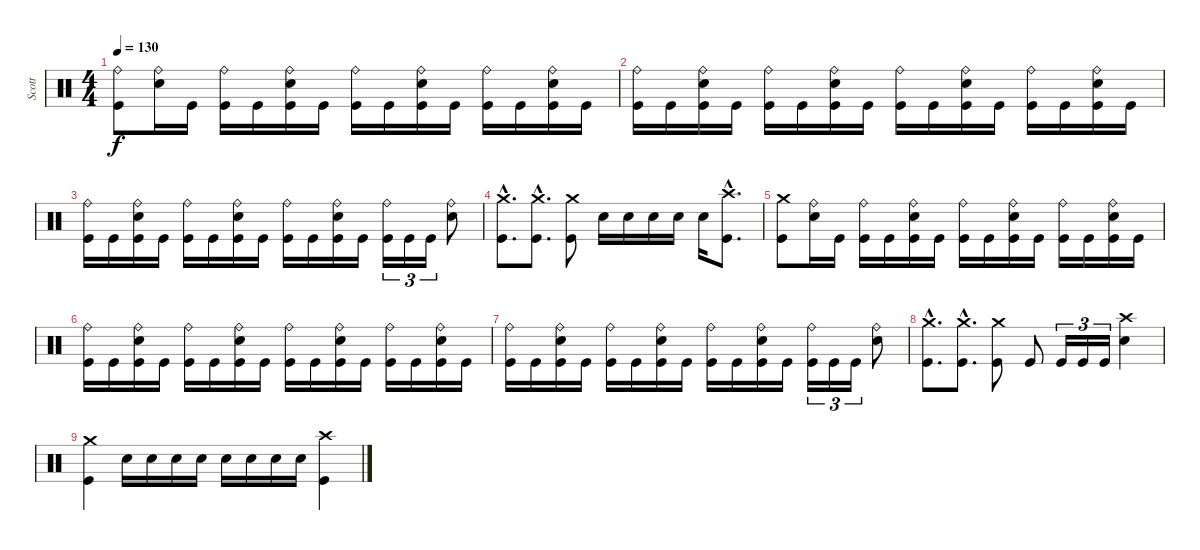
\track ("Scott" "Scott") {instrument percussion}
\staff {score}
\articulation defaults
\ts (4 4)
\tempo 130
\clef neutral
\ks c
("Kick (hit)" "Ride (bell)").8{dy f} ("Snare (hit) 2" "Ride (bell)").16 "Kick (hit)".16 ("Kick (hit)" "Ride (bell)").16 "Kick (hit)".16 ("Kick (hit)" "Snare (hit) 2" "Ride (bell)").16 "Kick (hit)".16 ("Kick (hit)" "Ride (bell)").16 "Kick (hit)".16 ("Kick (hit)" "Snare (hit) 2" "Ride (bell)").16 "Kick (hit)".16 ("Kick (hit)" "Ride (bell)").16 "Kick (hit)".16 ("Kick (hit)" "Snare (hit) 2" "Ride (bell)").16 "Kick (hit)".16 |
("Kick (hit)" "Ride (bell)").16 "Kick (hit)".16 ("Kick (hit)" "Snare (hit) 2" "Ride (bell)").16 "Kick (hit)".16 ("Kick (hit)" "Ride (bell)").16 "Kick (hit)".16 ("Kick (hit)" "Snare (hit) 2" "Ride (bell)").16 "Kick (hit)".16 ("Kick (hit)" "Ride (bell)").16 "Kick (hit)".16 ("Kick (hit)" "Snare (hit) 2" "Ride (bell)").16 "Kick (hit)".16 ("Kick (hit)" "Ride (bell)").16 "Kick (hit)".16 ("Kick (hit)" "Snare (hit) 2" "Ride (bell)").16 "Kick (hit)".16 |
("Kick (hit)" "Ride (bell)").16 "Kick (hit)".16 ("Kick (hit)" "Snare (hit) 2" "Ride (bell)").16 "Kick (hit)".16 ("Kick (hit)" "Ride (bell)").16 "Kick (hit)".16 ("Kick (hit)" "Snare (hit) 2" "Ride (bell)").16 "Kick (hit)".16 ("Kick (hit)" "Ride (bell)").16 "Kick (hit)".16 ("Kick (hit)" "Snare (hit) 2" "Ride (bell)").16 "Kick (hit)".16 ("Kick (hit)" "Ride (bell)").16{tu (3 2)} "Kick (hit)".16{tu (3 2)} "Kick (hit)".16{tu (3 2)} ("Snare (hit) 2" "Ride (bell)").8 |
("Kick (hit)"{hac} "Crash medium (hit)"{hac}).8{d} ("Kick (hit)"{hac} "Crash medium (hit)"{hac}).8{d} ("Kick (hit)" "Crash medium (hit)").8 "Snare (hit) 2".16 "Snare (hit) 2".16 "Snare (hit) 2".16 "Snare (hit) 2".16 "Snare (hit) 2".16 ("Kick (hit)"{hac} "Crash high (hit)"{hac}).8{d} |
("Kick (hit)" "Crash medium (hit)").8 ("Snare (hit) 2" "Ride (bell)").16 "Kick (hit)".16 ("Kick (hit)" "Ride (bell)").16 "Kick (hit)".16 ("Kick (hit)" "Snare (hit) 2" "Ride (bell)").16 "Kick (hit)".16 ("Kick (hit)" "Ride (bell)").16 "Kick (hit)".16 ("Kick (hit)" "Snare (hit) 2" "Ride (bell)").16 "Kick (hit)".16 ("Kick (hit)" "Ride (bell)").16 "Kick (hit)".16 ("Kick (hit)" "Snare (hit) 2" "Ride (bell)").16 "Kick (hit)".16 |
("Kick (hit)" "Ride (bell)").16 "Kick (hit)".16 ("Kick (hit)" "Snare (hit) 2" "Ride (bell)").16 "Kick (hit)".16 ("Kick (hit)" "Ride (bell)").16 "Kick (hit)".16 ("Kick (hit)" "Snare (hit) 2" "Ride (bell)").16 "Kick (hit)".16 ("Kick (hit)" "Ride (bell)").16 "Kick (hit)".16 ("Kick (hit)" "Snare (hit) 2" "Ride (bell)").16 "Kick (hit)".16 ("Kick (hit)" "Ride (bell)").16 "Kick (hit)".16 ("Kick (hit)" "Snare (hit) 2" "Ride (bell)").16 "Kick (hit)".16 |
("Kick (hit)" "Ride (bell)").16 "Kick (hit)".16 ("Kick (hit)" "Snare (hit) 2" "Ride (bell)").16 "Kick (hit)".16 ("Kick (hit)" "Ride (bell)").16 "Kick (hit)".16 ("Kick (hit)" "Snare (hit) 2" "Ride (bell)").16 "Kick (hit)".16 ("Kick (hit)" "Ride (bell)").16 "Kick (hit)".16 ("Kick (hit)" "Snare (hit) 2" "Ride (bell)").16 "Kick (hit)".16 ("Kick (hit)" "Ride (bell)").16{tu (3 2)} "Kick (hit)".16{tu (3 2)} "Kick (hit)".16{tu (3 2)} ("Snare (hit) 2" "Ride (bell)").8 |
("Kick (hit)"{hac} "Crash medium (hit)"{hac}).8{d} ("Kick (hit)"{hac} "Crash medium (hit)"{hac}).8{d} ("Kick (hit)" "Crash medium (hit)").8 "Kick (hit)".8 "Kick (hit)".16{tu (3 2)} "Kick (hit)".16{tu (3 2)} "Kick (hit)".16{tu (3 2)} ("Snare (hit) 2" "Crash high (hit)").4 |
("Kick (hit)" "Crash medium (hit)").4 "Snare (hit) 2".16 "Snare (hit) 2".16 "Snare (hit) 2".16 "Snare (hit) 2".16 "Snare (hit) 2".16 "Snare (hit) 2".16 "Snare (hit) 2".16 "Snare (hit) 2".16 ("Kick (hit)" "Crash high (hit)").4
